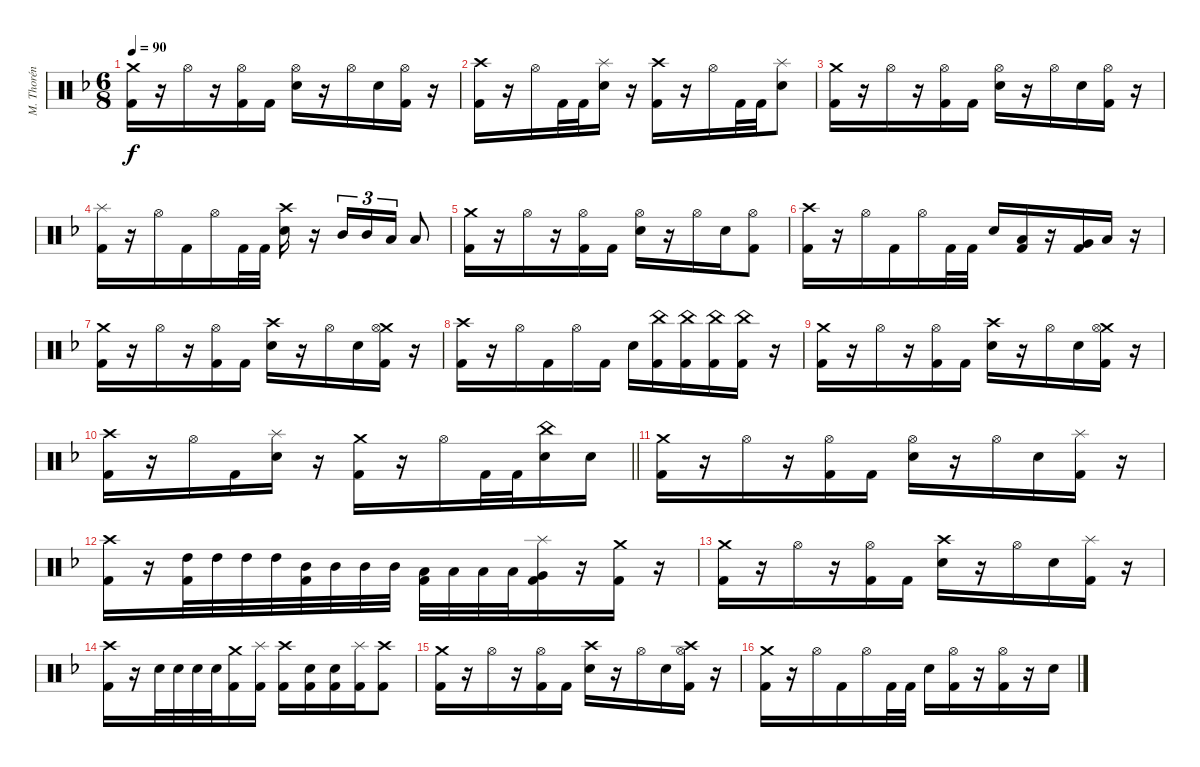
\track ("M. Thorén (Drums)" "M. Thorén ") {instrument percussion}
\staff {score}
\articulation defaults
\ts (6 8)
\tempo 90
\clef neutral
\ks dminor
("Crash medium (hit)" "Kick (hit) 2").16{dy f} r.16 "Hi-Hat (open)".16 r.16 ("Hi-Hat (open)" "Kick (hit) 2").16 "Kick (hit) 2".16 ("Hi-Hat (open)" "Electric Snare (hit)").16 r.16 "Hi-Hat (open)".16 "Electric Snare (hit)".16 ("Hi-Hat (open)" "Kick (hit) 2").16 r.16 |
("Crash high (hit)" "Kick (hit) 2").16 r.16 "Hi-Hat (open)".16 "Kick (hit) 2".32 "Kick (hit) 2".32 ("Splash (hit)" "Electric Snare (hit)").16 r.16 ("Crash high (hit)" "Kick (hit) 2").16 r.16 "Hi-Hat (open)".16 "Kick (hit) 2".32 "Kick (hit) 2".32 ("Splash (hit)" "Electric Snare (hit)").8 |
("Crash medium (hit)" "Kick (hit) 2").16 r.16 "Hi-Hat (open)".16 r.16 ("Hi-Hat (open)" "Kick (hit) 2").16 "Kick (hit) 2".16 ("Hi-Hat (open)" "Electric Snare (hit)").16 r.16 "Hi-Hat (open)".16 "Electric Snare (hit)".16 ("Hi-Hat (open)" "Kick (hit) 2").16 r.16 |
("Splash (hit)" "Kick (hit) 2").16 r.16 "Hi-Hat (open)".16 "Kick (hit) 2".16 "Hi-Hat (open)".16 "Kick (hit) 2".32 "Kick (hit) 2".32 ("Crash high (hit)" "Electric Snare (hit)").16 r.16 "Mid Tom (hit)".16{tu (3 2)} "Mid Tom (hit)".16{tu (3 2)} "Low Tom (hit)".16{tu (3 2)} "Low Tom (hit)".8 |
("Crash medium (hit)" "Kick (hit) 2").16 r.16 "Hi-Hat (open)".16 r.16 ("Hi-Hat (open)" "Kick (hit) 2").16 "Kick (hit) 2".16 ("Hi-Hat (open)" "Electric Snare (hit)").16 r.16 "Hi-Hat (open)".16 "Electric Snare (hit)".16 ("Hi-Hat (open)" "Kick (hit) 2").8 |
("Crash high (hit)" "Kick (hit) 2").16 r.16 "Hi-Hat (open)".16 "Kick (hit) 2".16 "Hi-Hat (open)".16 "Kick (hit) 2".32 "Kick (hit) 2".32 "Electric Snare (hit)".16 ("Low Tom (hit)" "Kick (hit) 2").16 r.16 ("Very Low Tom (hit)" "Kick (hit) 2").16 "Low Floor Tom (hit)".16 r.16 |
("Crash medium (hit)" "Kick (hit) 2").16 r.16 "Hi-Hat (open)".16 r.16 ("Hi-Hat (open)" "Kick (hit) 2").16 "Kick (hit) 2".16 ("Crash high (hit)" "Electric Snare (hit)").16 r.16 "Hi-Hat (open)".16 "Electric Snare (hit)".16 ("Crash medium (hit)" "Hi-Hat (open)" "Kick (hit) 2").16 r.16 |
("Crash high (hit)" "Kick (hit) 2").16 r.16 "Hi-Hat (open)".16 "Kick (hit) 2".16 "Hi-Hat (open)".16 "Kick (hit) 2".16 "Electric Snare (hit)".16 ("China (hit)" "Kick (hit) 2").16 ("China (hit)" "Kick (hit) 2").16 ("China (hit)" "Kick (hit) 2").16 ("China (hit)" "Kick (hit) 2").16 r.16 |
("Crash medium (hit)" "Kick (hit) 2").16 r.16 "Hi-Hat (open)".16 r.16 ("Hi-Hat (open)" "Kick (hit) 2").16 "Kick (hit) 2".16 ("Crash high (hit)" "Electric Snare (hit)").16 r.16 "Hi-Hat (open)".16 "Electric Snare (hit)".16 ("Crash medium (hit)" "Hi-Hat (open)" "Kick (hit) 2").16 r.16 |
\barLineRight lightlight
("Crash high (hit)" "Kick (hit) 2").16 r.16 "Hi-Hat (open)".16 "Kick (hit) 2".16 ("Splash (hit)" "Electric Snare (hit)").16 r.16 ("Crash medium (hit)" "Kick (hit) 2").16 r.16 "Hi-Hat (open)".16 "Kick (hit) 2".32 "Kick (hit) 2".32 ("China (hit)" "Electric Snare (hit)").16 "Electric Snare (hit)".16 |
("Crash medium (hit)" "Kick (hit) 2").16 r.16 "Hi-Hat (open)".16 r.16 ("Hi-Hat (open)" "Kick (hit) 2").16 "Kick (hit) 2".16 ("Hi-Hat (open)" "Electric Snare (hit)").16 r.16 "Hi-Hat (open)".16 "Electric Snare (hit)".16 ("Splash (hit)" "Kick (hit) 2").16 r.16 |
("Crash high (hit)" "Kick (hit) 2").16 r.16 ("High Tom (hit)" "Kick (hit) 2").32 "High Tom (hit)".32 "High Tom (hit)".32 "High Tom (hit)".32 ("Mid Tom (hit)" "Kick (hit) 2").32 "Mid Tom (hit)".32 "Mid Tom (hit)".32 "Mid Tom (hit)".32 ("Low Tom (hit)" "Kick (hit) 2").32 "Low Tom (hit)".32 "Low Tom (hit)".32 "Low Tom (hit)".32 ("Splash (hit)" "Very Low Tom (hit)" "Kick (hit) 2").16 r.16 ("Crash medium (hit)" "Kick (hit) 2").16 r.16 |
("Crash medium (hit)" "Kick (hit) 2").16 r.16 "Hi-Hat (open)".16 r.16 ("Hi-Hat (open)" "Kick (hit) 2").16 "Kick (hit) 2".16 ("Crash high (hit)" "Electric Snare (hit)").16 r.16 "Hi-Hat (open)".16 "Electric Snare (hit)".16 ("Splash (hit)" "Kick (hit) 2").16 r.16 |
("Crash high (hit)" "Kick (hit) 2").16 r.16 "Electric Snare (hit)".32 "Electric Snare (hit)".32 "Electric Snare (hit)".32 "Electric Snare (hit)".32 ("Crash medium (hit)" "Kick (hit) 2").16 ("Splash (hit)" "Kick (hit) 2").16 ("Crash high (hit)" "Kick (hit) 2").16 ("Electric Snare (hit)" "Kick (hit) 2").16 ("Electric Snare (hit)" "Kick (hit) 2").16 ("Splash (hit)" "Kick (hit) 2").16 ("Crash high (hit)" "Kick (hit) 2").8 |
("Crash medium (hit)" "Kick (hit) 2").16 r.16 "Hi-Hat (open)".16 r.16 ("Hi-Hat (open)" "Kick (hit) 2").16 "Kick (hit) 2".16 ("Crash high (hit)" "Electric Snare (hit)").16 r.16 "Hi-Hat (open)".16 "Electric Snare (hit)".16 ("Crash high (hit)" "Hi-Hat (open)" "Kick (hit) 2").16 r.16 |
("Crash medium (hit)" "Kick (hit) 2").16 r.16 "Hi-Hat (open)".16 "Kick (hit) 2".16 "Hi-Hat (open)".16 "Kick (hit) 2".32 "Kick (hit) 2".32 "Electric Snare (hit)".16 ("Hi-Hat (open)" "Kick (hit) 2").16 r.16 ("Hi-Hat (open)" "Kick (hit) 2").16 r.16 "Electric Snare (hit)".16
